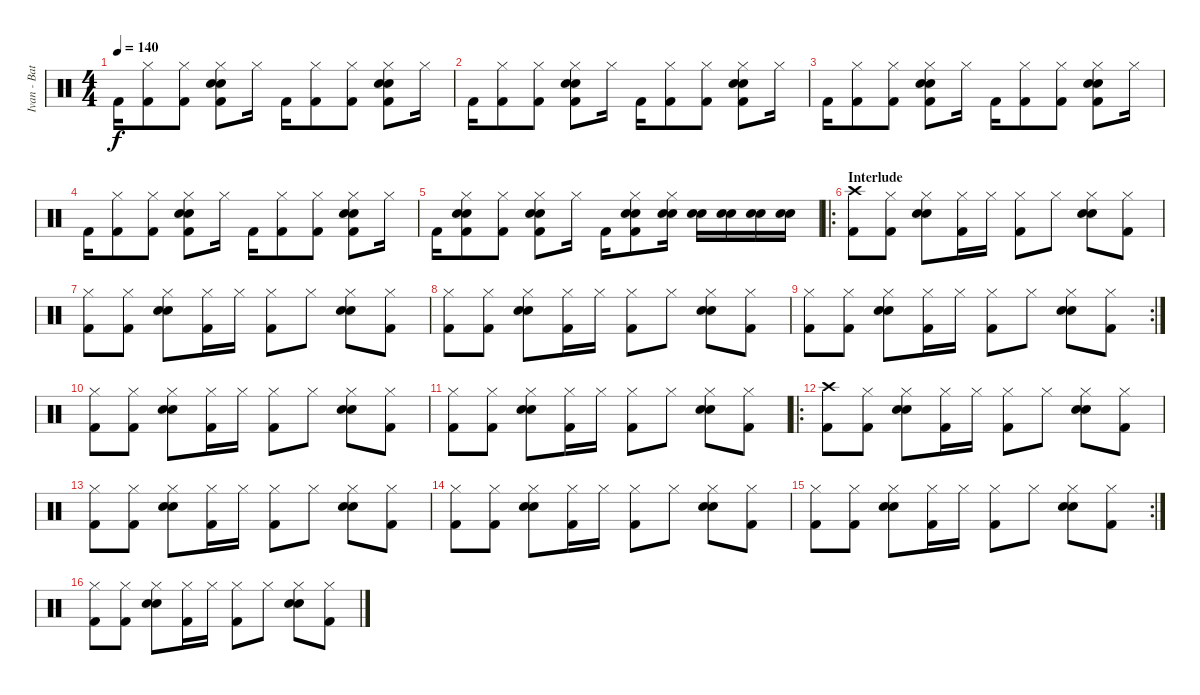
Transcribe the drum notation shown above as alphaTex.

\track ("Ivan - Batterie" "Ivan - Bat") {instrument percussion}
\staff {score}
\articulation defaults
\ts (4 4)
\tempo 140
\clef neutral
\ks c "Kick (hit) 2".16{dy f}
("Hi-Hat (closed)" "Kick (hit) 2").8 ("Hi-Hat (closed)" "Kick (hit) 2").8 ("Hi-Hat (closed)" "Electric Snare (hit)" "Snare (hit) 2" "Kick (hit) 2").8 "Hi-Hat (closed)".16 "Kick (hit) 2".16 ("Hi-Hat (closed)" "Kick (hit) 2").8 ("Hi-Hat (closed)" "Kick (hit) 2").8 ("Hi-Hat (closed)" "Electric Snare (hit)" "Snare (hit) 2" "Kick (hit) 2").8 "Hi-Hat (closed)".16 |
"Kick (hit) 2".16 ("Hi-Hat (closed)" "Kick (hit) 2").8 ("Hi-Hat (closed)" "Kick (hit) 2").8 ("Hi-Hat (closed)" "Electric Snare (hit)" "Snare (hit) 2" "Kick (hit) 2").8 "Hi-Hat (closed)".16 "Kick (hit) 2".16 ("Hi-Hat (closed)" "Kick (hit) 2").8 ("Hi-Hat (closed)" "Kick (hit) 2").8 ("Hi-Hat (closed)" "Electric Snare (hit)" "Snare (hit) 2" "Kick (hit) 2").8 "Hi-Hat (closed)".16 |
"Kick (hit) 2".16 ("Hi-Hat (closed)" "Kick (hit) 2").8 ("Hi-Hat (closed)" "Kick (hit) 2").8 ("Hi-Hat (closed)" "Electric Snare (hit)" "Snare (hit) 2" "Kick (hit) 2").8 "Hi-Hat (closed)".16 "Kick (hit) 2".16 ("Hi-Hat (closed)" "Kick (hit) 2").8 ("Hi-Hat (closed)" "Kick (hit) 2").8 ("Hi-Hat (closed)" "Electric Snare (hit)" "Snare (hit) 2" "Kick (hit) 2").8 "Hi-Hat (closed)".16 |
"Kick (hit) 2".16 ("Hi-Hat (closed)" "Kick (hit) 2").8 ("Hi-Hat (closed)" "Kick (hit) 2").8 ("Hi-Hat (closed)" "Electric Snare (hit)" "Snare (hit) 2" "Kick (hit) 2").8 "Hi-Hat (closed)".16 "Kick (hit) 2".16 ("Hi-Hat (closed)" "Kick (hit) 2").8 ("Hi-Hat (closed)" "Kick (hit) 2").8 ("Hi-Hat (closed)" "Electric Snare (hit)" "Snare (hit) 2" "Kick (hit) 2").8 "Hi-Hat (closed)".16 |
"Kick (hit) 2".16 ("Hi-Hat (closed)" "Electric Snare (hit)" "Snare (hit) 2" "Kick (hit) 2").8 ("Hi-Hat (closed)" "Kick (hit) 2").8 ("Hi-Hat (closed)" "Electric Snare (hit)" "Snare (hit) 2" "Kick (hit) 2").8 "Hi-Hat (closed)".16 "Kick (hit) 2".16 ("Hi-Hat (closed)" "Electric Snare (hit)" "Snare (hit) 2" "Kick (hit) 2").8 ("Hi-Hat (closed)" "Electric Snare (hit)" "Snare (hit) 2").16 ("Electric Snare (hit)" "Snare (hit) 2").16 ("Electric Snare (hit)" "Snare (hit) 2").16 ("Electric Snare (hit)" "Snare (hit) 2").16 ("Electric Snare (hit)" "Snare (hit) 2").16 |
\ro
\section ("" "Interlude")
("Crash high (hit)" "Kick (hit) 2").8 ("Hi-Hat (closed)" "Kick (hit) 2").8 ("Hi-Hat (closed)" "Electric Snare (hit)" "Snare (hit) 2").8 ("Hi-Hat (closed)" "Kick (hit) 2").16 "Hi-Hat (closed)".16 ("Hi-Hat (closed)" "Kick (hit) 2").8 "Hi-Hat (closed)".8 ("Hi-Hat (closed)" "Electric Snare (hit)" "Snare (hit) 2").8 ("Hi-Hat (closed)" "Kick (hit) 2").8 |
("Hi-Hat (closed)" "Kick (hit) 2").8 ("Hi-Hat (closed)" "Kick (hit) 2").8 ("Hi-Hat (closed)" "Electric Snare (hit)" "Snare (hit) 2").8 ("Hi-Hat (closed)" "Kick (hit) 2").16 "Hi-Hat (closed)".16 ("Hi-Hat (closed)" "Kick (hit) 2").8 "Hi-Hat (closed)".8 ("Hi-Hat (closed)" "Electric Snare (hit)" "Snare (hit) 2").8 ("Hi-Hat (closed)" "Kick (hit) 2").8 |
("Hi-Hat (closed)" "Kick (hit) 2").8 ("Hi-Hat (closed)" "Kick (hit) 2").8 ("Hi-Hat (closed)" "Electric Snare (hit)" "Snare (hit) 2").8 ("Hi-Hat (closed)" "Kick (hit) 2").16 "Hi-Hat (closed)".16 ("Hi-Hat (closed)" "Kick (hit) 2").8 "Hi-Hat (closed)".8 ("Hi-Hat (closed)" "Electric Snare (hit)" "Snare (hit) 2").8 ("Hi-Hat (closed)" "Kick (hit) 2").8 |
\rc 2
("Hi-Hat (closed)" "Kick (hit) 2").8 ("Hi-Hat (closed)" "Kick (hit) 2").8 ("Hi-Hat (closed)" "Electric Snare (hit)" "Snare (hit) 2").8 ("Hi-Hat (closed)" "Kick (hit) 2").16 "Hi-Hat (closed)".16 ("Hi-Hat (closed)" "Kick (hit) 2").8 "Hi-Hat (closed)".8 ("Hi-Hat (closed)" "Electric Snare (hit)" "Snare (hit) 2").8 ("Hi-Hat (closed)" "Kick (hit) 2").8 |
("Hi-Hat (closed)" "Kick (hit) 2").8 ("Hi-Hat (closed)" "Kick (hit) 2").8 ("Hi-Hat (closed)" "Electric Snare (hit)" "Snare (hit) 2").8 ("Hi-Hat (closed)" "Kick (hit) 2").16 "Hi-Hat (closed)".16 ("Hi-Hat (closed)" "Kick (hit) 2").8 "Hi-Hat (closed)".8 ("Hi-Hat (closed)" "Electric Snare (hit)" "Snare (hit) 2").8 ("Hi-Hat (closed)" "Kick (hit) 2").8 |
("Hi-Hat (closed)" "Kick (hit) 2").8 ("Hi-Hat (closed)" "Kick (hit) 2").8 ("Hi-Hat (closed)" "Electric Snare (hit)" "Snare (hit) 2").8 ("Hi-Hat (closed)" "Kick (hit) 2").16 "Hi-Hat (closed)".16 ("Hi-Hat (closed)" "Kick (hit) 2").8 "Hi-Hat (closed)".8 ("Hi-Hat (closed)" "Electric Snare (hit)" "Snare (hit) 2").8 ("Hi-Hat (closed)" "Kick (hit) 2").8 |
\ro
("Crash high (hit)" "Kick (hit) 2").8 ("Hi-Hat (closed)" "Kick (hit) 2").8 ("Hi-Hat (closed)" "Electric Snare (hit)" "Snare (hit) 2").8 ("Hi-Hat (closed)" "Kick (hit) 2").16 "Hi-Hat (closed)".16 ("Hi-Hat (closed)" "Kick (hit) 2").8 "Hi-Hat (closed)".8 ("Hi-Hat (closed)" "Electric Snare (hit)" "Snare (hit) 2").8 ("Hi-Hat (closed)" "Kick (hit) 2").8 |
("Hi-Hat (closed)" "Kick (hit) 2").8 ("Hi-Hat (closed)" "Kick (hit) 2").8 ("Hi-Hat (closed)" "Electric Snare (hit)" "Snare (hit) 2").8 ("Hi-Hat (closed)" "Kick (hit) 2").16 "Hi-Hat (closed)".16 ("Hi-Hat (closed)" "Kick (hit) 2").8 "Hi-Hat (closed)".8 ("Hi-Hat (closed)" "Electric Snare (hit)" "Snare (hit) 2").8 ("Hi-Hat (closed)" "Kick (hit) 2").8 |
("Hi-Hat (closed)" "Kick (hit) 2").8 ("Hi-Hat (closed)" "Kick (hit) 2").8 ("Hi-Hat (closed)" "Electric Snare (hit)" "Snare (hit) 2").8 ("Hi-Hat (closed)" "Kick (hit) 2").16 "Hi-Hat (closed)".16 ("Hi-Hat (closed)" "Kick (hit) 2").8 "Hi-Hat (closed)".8 ("Hi-Hat (closed)" "Electric Snare (hit)" "Snare (hit) 2").8 ("Hi-Hat (closed)" "Kick (hit) 2").8 |
\rc 2
("Hi-Hat (closed)" "Kick (hit) 2").8 ("Hi-Hat (closed)" "Kick (hit) 2").8 ("Hi-Hat (closed)" "Electric Snare (hit)" "Snare (hit) 2").8 ("Hi-Hat (closed)" "Kick (hit) 2").16 "Hi-Hat (closed)".16 ("Hi-Hat (closed)" "Kick (hit) 2").8 "Hi-Hat (closed)".8 ("Hi-Hat (closed)" "Electric Snare (hit)" "Snare (hit) 2").8 ("Hi-Hat (closed)" "Kick (hit) 2").8 |
("Hi-Hat (closed)" "Kick (hit) 2").8 ("Hi-Hat (closed)" "Kick (hit) 2").8 ("Hi-Hat (closed)" "Electric Snare (hit)" "Snare (hit) 2").8 ("Hi-Hat (closed)" "Kick (hit) 2").16 "Hi-Hat (closed)".16 ("Hi-Hat (closed)" "Kick (hit) 2").8 "Hi-Hat (closed)".8 ("Hi-Hat (closed)" "Electric Snare (hit)" "Snare (hit) 2").8 ("Hi-Hat (closed)" "Kick (hit) 2").8
